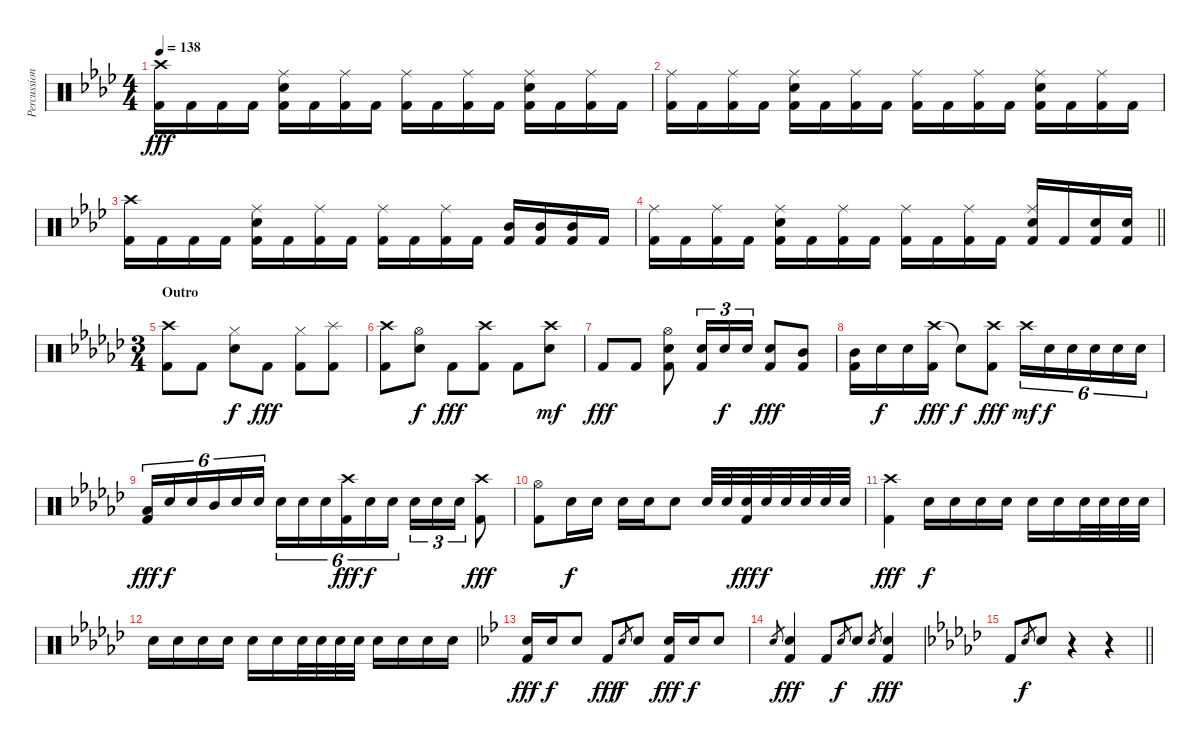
\track ("Percussion" "Percussion") {instrument percussion}
\staff {score}
\articulation defaults
\ts (4 4)
\tempo 138
\clef neutral
\ks fminor
("Crash high (hit)" "Kick (hit) 2").16{dy fff} "Kick (hit) 2".16 "Kick (hit) 2".16 "Kick (hit) 2".16 ("Ride (middle)" "Electric Snare (hit)" "Kick (hit) 2").16 "Kick (hit) 2".16 ("Ride (middle)" "Kick (hit) 2").16 "Kick (hit) 2".16 ("Ride (middle)" "Kick (hit) 2").16 "Kick (hit) 2".16 ("Ride (middle)" "Kick (hit) 2").16 "Kick (hit) 2".16 ("Ride (middle)" "Electric Snare (hit)" "Kick (hit) 2").16 "Kick (hit) 2".16 ("Ride (middle)" "Kick (hit) 2").16 "Kick (hit) 2".16 |
("Ride (middle)" "Kick (hit) 2").16 "Kick (hit) 2".16 ("Ride (middle)" "Kick (hit) 2").16 "Kick (hit) 2".16 ("Ride (middle)" "Electric Snare (hit)" "Kick (hit) 2").16 "Kick (hit) 2".16 ("Ride (middle)" "Kick (hit) 2").16 "Kick (hit) 2".16 ("Ride (middle)" "Kick (hit) 2").16 "Kick (hit) 2".16 ("Ride (middle)" "Kick (hit) 2").16 "Kick (hit) 2".16 ("Ride (middle)" "Electric Snare (hit)" "Kick (hit) 2").16 "Kick (hit) 2".16 ("Ride (middle)" "Kick (hit) 2").16 "Kick (hit) 2".16 |
("Crash high (hit)" "Kick (hit) 2").16 "Kick (hit) 2".16 "Kick (hit) 2".16 "Kick (hit) 2".16 ("Ride (middle)" "Electric Snare (hit)" "Kick (hit) 2").16 "Kick (hit) 2".16 ("Ride (middle)" "Kick (hit) 2").16 "Kick (hit) 2".16 ("Ride (middle)" "Kick (hit) 2").16 "Kick (hit) 2".16 ("Ride (middle)" "Kick (hit) 2").16 "Kick (hit) 2".16 ("Mid Tom (hit)" "Kick (hit) 2").16 ("Mid Tom (hit)" "Kick (hit) 2").16 ("Mid Tom (hit)" "Kick (hit) 2").16 "Kick (hit) 2".16 |
\barLineRight lightlight
("Ride (middle)" "Kick (hit) 2").16 "Kick (hit) 2".16 ("Ride (middle)" "Kick (hit) 2").16 "Kick (hit) 2".16 ("Ride (middle)" "Electric Snare (hit)" "Kick (hit) 2").16 "Kick (hit) 2".16 ("Ride (middle)" "Kick (hit) 2").16 "Kick (hit) 2".16 ("Ride (middle)" "Kick (hit) 2").16 "Kick (hit) 2".16 ("Ride (middle)" "Kick (hit) 2").16 "Kick (hit) 2".16 ("Ride (middle)" "Electric Snare (hit)" "Kick (hit) 2").16 "Kick (hit) 2".16 ("Electric Snare (hit)" "Kick (hit) 2").16 ("Electric Snare (hit)" "Kick (hit) 2").16 |
\ts (3 4)
\section ("" "Outro")
\ks ebminor
("Crash high (hit)" "Kick (hit) 2").8 "Kick (hit) 2".8 ("Hi-Hat (closed)" "Electric Snare (hit)").8{dy f} "Kick (hit) 2".8{dy fff} ("Hi-Hat (closed)" "Kick (hit) 2").8 ("Splash (hit)" "Kick (hit) 2").8 |
("Crash high (hit)" "Kick (hit) 2").8 ("Hi-Hat (open)" "Electric Snare (hit)").8{dy f} "Kick (hit) 2".8{dy fff} ("Crash high (hit)" "Kick (hit) 2").8 "Kick (hit) 2".8 ("Crash high (hit)" "Electric Snare (hit)").8{dy mf} |
"Kick (hit) 2".8{dy fff} "Kick (hit) 2".8 ("Hi-Hat (open)" "Electric Snare (hit)" "Kick (hit) 2").8 ("Electric Snare (hit)" "Kick (hit) 2").16{tu (3 2)} "Electric Snare (hit)".16{tu (3 2) dy f} "Electric Snare (hit)".16{tu (3 2)} ("Electric Snare (hit)" "Kick (hit) 2").8{dy fff} ("Mid Tom (hit)" "Kick (hit) 2").8 |
("Mid Tom (hit)" "Kick (hit) 2").16 "Electric Snare (hit)".16{dy f} "Electric Snare (hit)".16 ("Crash high (hit)" "Kick (hit) 2").16{dy fff} "Snare (hit)"{t}.8{dy f} ("Crash high (hit)" "Kick (hit) 2").8{dy fff} "Crash high (hit)".16{tu (6 4) dy mf} "Electric Snare (hit)".16{tu (6 4) dy f} "Electric Snare (hit)".16{tu (6 4)} "Electric Snare (hit)".16{tu (6 4)} "Electric Snare (hit)".16{tu (6 4)} "Electric Snare (hit)".16{tu (6 4)} |
("Low Tom (hit)" "Kick (hit) 2").16{tu (6 4) dy fff} "Electric Snare (hit)".16{tu (6 4) dy f} "Electric Snare (hit)".16{tu (6 4)} "Mid Tom (hit)".16{tu (6 4)} "Electric Snare (hit)".16{tu (6 4)} "Electric Snare (hit)".16{tu (6 4)} "Electric Snare (hit)".16{tu (6 4)} "Electric Snare (hit)".16{tu (6 4)} "Electric Snare (hit)".16{tu (6 4)} ("Crash high (hit)" "Kick (hit) 2").16{tu (6 4) dy fff} "Electric Snare (hit)".16{tu (6 4) dy f} "Electric Snare (hit)".16{tu (6 4)} "Electric Snare (hit)".16{tu (3 2)} "Electric Snare (hit)".16{tu (3 2)} "Electric Snare (hit)".16{tu (3 2)} ("Crash high (hit)" "Kick (hit) 2").8{dy fff} |
("Hi-Hat (open)" "Kick (hit) 2").8 "Electric Snare (hit)".16{dy f} "Electric Snare (hit)".16 "Electric Snare (hit)".16 "Electric Snare (hit)".16 "Electric Snare (hit)".8 "Electric Snare (hit)".32 "Electric Snare (hit)".32 ("Electric Snare (hit)" "Kick (hit) 2").32{dy fff} "Electric Snare (hit)".32{dy f} "Electric Snare (hit)".32 "Electric Snare (hit)".32 "Electric Snare (hit)".32 "Electric Snare (hit)".32 |
("Crash high (hit)" "Kick (hit) 2").4{dy fff} "Electric Snare (hit)".16{dy f} "Electric Snare (hit)".16 "Electric Snare (hit)".16 "Electric Snare (hit)".16 "Electric Snare (hit)".16 "Electric Snare (hit)".16 "Electric Snare (hit)".32 "Electric Snare (hit)".32 "Electric Snare (hit)".32 "Electric Snare (hit)".32 |
"Electric Snare (hit)".16 "Electric Snare (hit)".16 "Electric Snare (hit)".16 "Electric Snare (hit)".16 "Electric Snare (hit)".16 "Electric Snare (hit)".16 "Electric Snare (hit)".32 "Electric Snare (hit)".32 "Electric Snare (hit)".32 "Electric Snare (hit)".32 "Electric Snare (hit)".16 "Electric Snare (hit)".16 "Electric Snare (hit)".16 "Electric Snare (hit)".16 |
\ks gminor
("Electric Snare (hit)" "Kick (hit) 2").16{dy fff} "Electric Snare (hit)".16{dy f} "Electric Snare (hit)".8 "Kick (hit) 2".8{dy fff} "Electric Snare (hit)".8{gr dy f} "Electric Snare (hit)".8 ("Electric Snare (hit)" "Kick (hit) 2").16{dy fff} "Electric Snare (hit)".16{dy f} "Electric Snare (hit)".8 |
"Electric Snare (hit)".8{gr} ("Electric Snare (hit)" "Kick (hit) 2").4{dy fff} "Kick (hit) 2".8 "Electric Snare (hit)".8{gr dy f} "Electric Snare (hit)".8 "Electric Snare (hit)".8{gr} ("Electric Snare (hit)" "Kick (hit) 2").4{dy fff} |
\barLineRight lightlight
\ks ebminor "Kick (hit) 2".8 "Electric Snare (hit)".8{gr dy f} "Electric Snare (hit)".8
r.4 r.4
